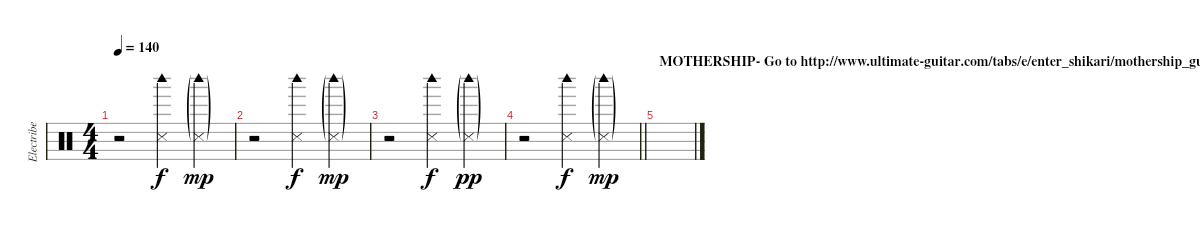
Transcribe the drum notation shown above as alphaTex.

\track ("Electribe Click" "Electribe ") {instrument percussion}
\staff {score}
\articulation defaults
\ts (4 4)
\tempo 140
\clef neutral
\ks c
r.2{dy mp} ("Woodblock high (hit)" "Snare (side stick) 3").4{dy f} ("Woodblock high (hit)"{g} "Snare (side stick) 3"{g}).4{dy mp} |
r.2 ("Woodblock high (hit)" "Snare (side stick) 3").4{dy f} ("Woodblock high (hit)"{g} "Snare (side stick) 3"{g}).4{dy mp} |
r.2 ("Woodblock high (hit)" "Snare (side stick) 3").4{dy f} ("Woodblock high (hit)"{g} "Snare (side stick) 3"{g}).4{dy pp} |
\barLineRight lightlight
r.2 ("Woodblock high (hit)" "Snare (side stick) 3").4{dy f} ("Woodblock high (hit)"{g} "Snare (side stick) 3"{g}).4{dy mp} |
\section ("" "MOTHERSHIP- Go to http://www.ultimate-guitar.com/tabs/e/enter_shikari/mothership_guitar_pro.htm For ")
